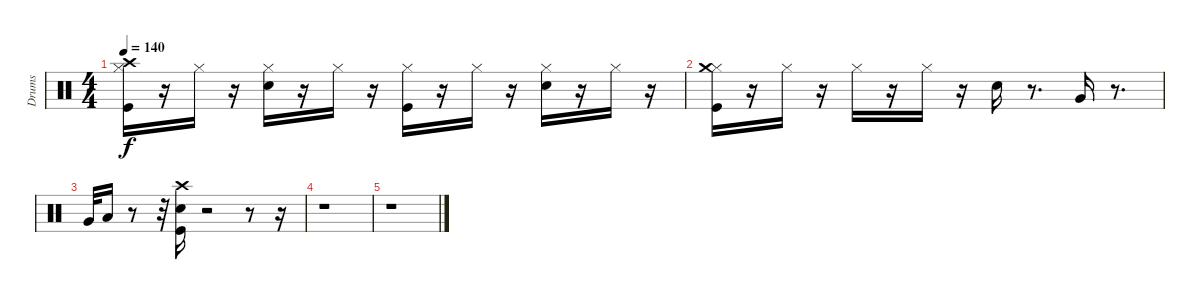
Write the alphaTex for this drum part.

\track ("Drums" "Drums") {instrument percussion}
\staff {score}
\articulation defaults
\ts (4 4)
\tempo 140
\clef neutral
\ks c
("Hi-Hat (closed)" "Crash high (hit)" "Kick (hit)").16{dy f} r.16 "Hi-Hat (closed)".16 r.16 ("Snare (hit) 2" "Hi-Hat (closed)").16 r.16 "Hi-Hat (closed)".16 r.16 ("Kick (hit)" "Hi-Hat (closed)").16 r.16 "Hi-Hat (closed)".16 r.16 ("Hi-Hat (closed)" "Snare (hit) 2").16 r.16 "Hi-Hat (closed)".16 r.16 |
("Hi-Hat (closed)" "Crash medium (hit)" "Kick (hit)").16 r.16 "Hi-Hat (closed)".16 r.16 "Hi-Hat (closed)".16 r.16 "Hi-Hat (closed)".16 r.16 "Snare (hit) 2".16 r.8{d} "Very Low Tom (hit)".16 r.8{d} |
"Very Low Tom (hit)".32 "Low Floor Tom (hit)".16 r.8 r.32 ("Kick (hit)" "Snare (hit) 2" "Crash high (hit)").16 r.2 r.8 r.16 |
r.1 |
r.1
